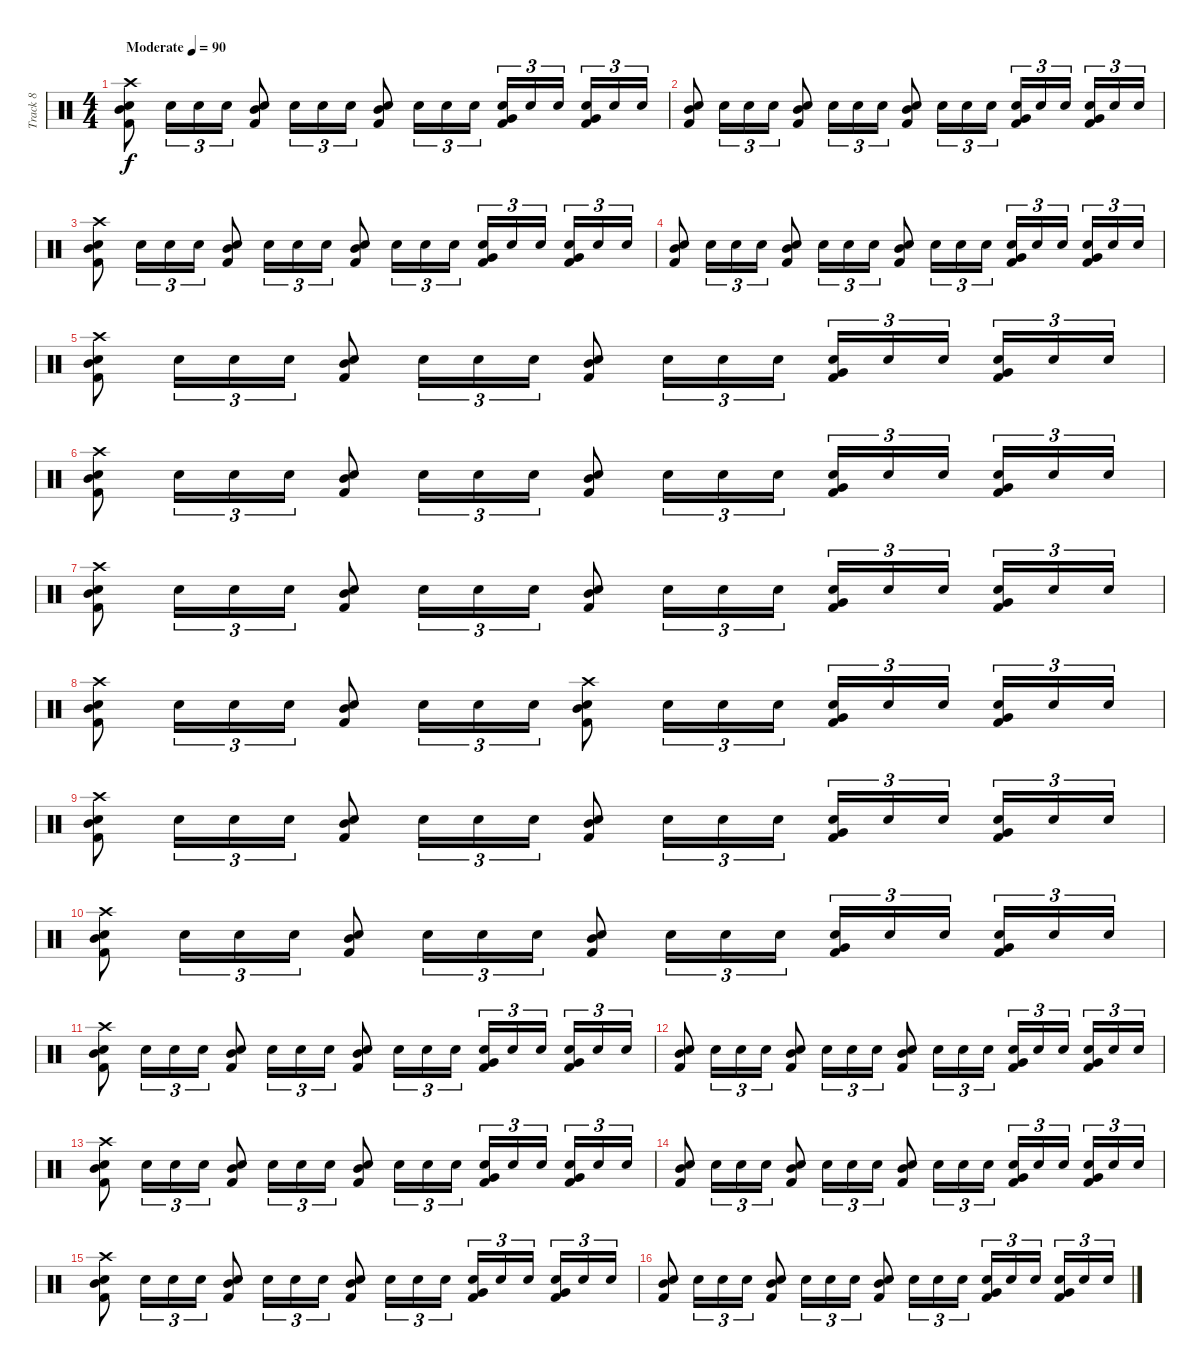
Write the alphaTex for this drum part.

\track ("Track 8" "Track 8") {instrument percussion}
\staff {score}
\articulation defaults
\ts (4 4)
\tempo (90 "Moderate")
\clef neutral
\ks c
("Crash high (hit)" "Mid Tom (hit)" "Snare (hit) 2" "Kick (hit) 2").8{dy f} "Snare (hit) 2".16{tu (3 2)} "Snare (hit) 2".16{tu (3 2)} "Snare (hit) 2".16{tu (3 2)} ("Mid Tom (hit)" "Snare (hit) 2" "Kick (hit) 2").8 "Snare (hit) 2".16{tu (3 2)} "Snare (hit) 2".16{tu (3 2)} "Snare (hit) 2".16{tu (3 2)} ("Mid Tom (hit)" "Snare (hit) 2" "Kick (hit) 2").8 "Snare (hit) 2".16{tu (3 2)} "Snare (hit) 2".16{tu (3 2)} "Snare (hit) 2".16{tu (3 2)} ("Very Low Tom (hit)" "Snare (hit) 2" "Kick (hit) 2").16{tu (3 2)} "Snare (hit) 2".16{tu (3 2)} "Snare (hit) 2".16{tu (3 2) beam splitsecondary} ("Very Low Tom (hit)" "Snare (hit) 2" "Kick (hit) 2").16{tu (3 2)} "Snare (hit) 2".16{tu (3 2)} "Snare (hit) 2".16{tu (3 2)} |
("Mid Tom (hit)" "Snare (hit) 2" "Kick (hit) 2").8 "Snare (hit) 2".16{tu (3 2)} "Snare (hit) 2".16{tu (3 2)} "Snare (hit) 2".16{tu (3 2)} ("Mid Tom (hit)" "Snare (hit) 2" "Kick (hit) 2").8 "Snare (hit) 2".16{tu (3 2)} "Snare (hit) 2".16{tu (3 2)} "Snare (hit) 2".16{tu (3 2)} ("Mid Tom (hit)" "Snare (hit) 2" "Kick (hit) 2").8 "Snare (hit) 2".16{tu (3 2)} "Snare (hit) 2".16{tu (3 2)} "Snare (hit) 2".16{tu (3 2)} ("Very Low Tom (hit)" "Snare (hit) 2" "Kick (hit) 2").16{tu (3 2)} "Snare (hit) 2".16{tu (3 2)} "Snare (hit) 2".16{tu (3 2) beam splitsecondary} ("Very Low Tom (hit)" "Snare (hit) 2" "Kick (hit) 2").16{tu (3 2)} "Snare (hit) 2".16{tu (3 2)} "Snare (hit) 2".16{tu (3 2)} |
("Crash high (hit)" "Mid Tom (hit)" "Snare (hit) 2" "Kick (hit) 2").8 "Snare (hit) 2".16{tu (3 2)} "Snare (hit) 2".16{tu (3 2)} "Snare (hit) 2".16{tu (3 2)} ("Mid Tom (hit)" "Snare (hit) 2" "Kick (hit) 2").8 "Snare (hit) 2".16{tu (3 2)} "Snare (hit) 2".16{tu (3 2)} "Snare (hit) 2".16{tu (3 2)} ("Mid Tom (hit)" "Snare (hit) 2" "Kick (hit) 2").8 "Snare (hit) 2".16{tu (3 2)} "Snare (hit) 2".16{tu (3 2)} "Snare (hit) 2".16{tu (3 2)} ("Very Low Tom (hit)" "Snare (hit) 2" "Kick (hit) 2").16{tu (3 2)} "Snare (hit) 2".16{tu (3 2)} "Snare (hit) 2".16{tu (3 2) beam splitsecondary} ("Very Low Tom (hit)" "Snare (hit) 2" "Kick (hit) 2").16{tu (3 2)} "Snare (hit) 2".16{tu (3 2)} "Snare (hit) 2".16{tu (3 2)} |
("Mid Tom (hit)" "Snare (hit) 2" "Kick (hit) 2").8 "Snare (hit) 2".16{tu (3 2)} "Snare (hit) 2".16{tu (3 2)} "Snare (hit) 2".16{tu (3 2)} ("Mid Tom (hit)" "Snare (hit) 2" "Kick (hit) 2").8 "Snare (hit) 2".16{tu (3 2)} "Snare (hit) 2".16{tu (3 2)} "Snare (hit) 2".16{tu (3 2)} ("Mid Tom (hit)" "Snare (hit) 2" "Kick (hit) 2").8 "Snare (hit) 2".16{tu (3 2)} "Snare (hit) 2".16{tu (3 2)} "Snare (hit) 2".16{tu (3 2)} ("Very Low Tom (hit)" "Snare (hit) 2" "Kick (hit) 2").16{tu (3 2)} "Snare (hit) 2".16{tu (3 2)} "Snare (hit) 2".16{tu (3 2) beam splitsecondary} ("Very Low Tom (hit)" "Snare (hit) 2" "Kick (hit) 2").16{tu (3 2)} "Snare (hit) 2".16{tu (3 2)} "Snare (hit) 2".16{tu (3 2)} |
("Crash high (hit)" "Mid Tom (hit)" "Snare (hit) 2" "Kick (hit) 2").8 "Snare (hit) 2".16{tu (3 2)} "Snare (hit) 2".16{tu (3 2)} "Snare (hit) 2".16{tu (3 2)} ("Mid Tom (hit)" "Snare (hit) 2" "Kick (hit) 2").8 "Snare (hit) 2".16{tu (3 2)} "Snare (hit) 2".16{tu (3 2)} "Snare (hit) 2".16{tu (3 2)} ("Mid Tom (hit)" "Snare (hit) 2" "Kick (hit) 2").8 "Snare (hit) 2".16{tu (3 2)} "Snare (hit) 2".16{tu (3 2)} "Snare (hit) 2".16{tu (3 2)} ("Very Low Tom (hit)" "Snare (hit) 2" "Kick (hit) 2").16{tu (3 2)} "Snare (hit) 2".16{tu (3 2)} "Snare (hit) 2".16{tu (3 2) beam splitsecondary} ("Very Low Tom (hit)" "Snare (hit) 2" "Kick (hit) 2").16{tu (3 2)} "Snare (hit) 2".16{tu (3 2)} "Snare (hit) 2".16{tu (3 2)} |
("Crash high (hit)" "Mid Tom (hit)" "Snare (hit) 2" "Kick (hit) 2").8 "Snare (hit) 2".16{tu (3 2)} "Snare (hit) 2".16{tu (3 2)} "Snare (hit) 2".16{tu (3 2)} ("Mid Tom (hit)" "Snare (hit) 2" "Kick (hit) 2").8 "Snare (hit) 2".16{tu (3 2)} "Snare (hit) 2".16{tu (3 2)} "Snare (hit) 2".16{tu (3 2)} ("Mid Tom (hit)" "Snare (hit) 2" "Kick (hit) 2").8 "Snare (hit) 2".16{tu (3 2)} "Snare (hit) 2".16{tu (3 2)} "Snare (hit) 2".16{tu (3 2)} ("Very Low Tom (hit)" "Snare (hit) 2" "Kick (hit) 2").16{tu (3 2)} "Snare (hit) 2".16{tu (3 2)} "Snare (hit) 2".16{tu (3 2) beam splitsecondary} ("Very Low Tom (hit)" "Snare (hit) 2" "Kick (hit) 2").16{tu (3 2)} "Snare (hit) 2".16{tu (3 2)} "Snare (hit) 2".16{tu (3 2)} |
("Crash high (hit)" "Mid Tom (hit)" "Snare (hit) 2" "Kick (hit) 2").8 "Snare (hit) 2".16{tu (3 2)} "Snare (hit) 2".16{tu (3 2)} "Snare (hit) 2".16{tu (3 2)} ("Mid Tom (hit)" "Snare (hit) 2" "Kick (hit) 2").8 "Snare (hit) 2".16{tu (3 2)} "Snare (hit) 2".16{tu (3 2)} "Snare (hit) 2".16{tu (3 2)} ("Mid Tom (hit)" "Snare (hit) 2" "Kick (hit) 2").8 "Snare (hit) 2".16{tu (3 2)} "Snare (hit) 2".16{tu (3 2)} "Snare (hit) 2".16{tu (3 2)} ("Very Low Tom (hit)" "Snare (hit) 2" "Kick (hit) 2").16{tu (3 2)} "Snare (hit) 2".16{tu (3 2)} "Snare (hit) 2".16{tu (3 2) beam splitsecondary} ("Very Low Tom (hit)" "Snare (hit) 2" "Kick (hit) 2").16{tu (3 2)} "Snare (hit) 2".16{tu (3 2)} "Snare (hit) 2".16{tu (3 2)} |
("Crash high (hit)" "Mid Tom (hit)" "Snare (hit) 2" "Kick (hit) 2").8 "Snare (hit) 2".16{tu (3 2)} "Snare (hit) 2".16{tu (3 2)} "Snare (hit) 2".16{tu (3 2)} ("Mid Tom (hit)" "Snare (hit) 2" "Kick (hit) 2").8 "Snare (hit) 2".16{tu (3 2)} "Snare (hit) 2".16{tu (3 2)} "Snare (hit) 2".16{tu (3 2)} ("Crash high (hit)" "Mid Tom (hit)" "Snare (hit) 2" "Kick (hit) 2").8 "Snare (hit) 2".16{tu (3 2)} "Snare (hit) 2".16{tu (3 2)} "Snare (hit) 2".16{tu (3 2)} ("Very Low Tom (hit)" "Snare (hit) 2" "Kick (hit) 2").16{tu (3 2)} "Snare (hit) 2".16{tu (3 2)} "Snare (hit) 2".16{tu (3 2) beam splitsecondary} ("Very Low Tom (hit)" "Snare (hit) 2" "Kick (hit) 2").16{tu (3 2)} "Snare (hit) 2".16{tu (3 2)} "Snare (hit) 2".16{tu (3 2)} |
("Crash high (hit)" "Mid Tom (hit)" "Snare (hit) 2" "Kick (hit) 2").8 "Snare (hit) 2".16{tu (3 2)} "Snare (hit) 2".16{tu (3 2)} "Snare (hit) 2".16{tu (3 2)} ("Mid Tom (hit)" "Snare (hit) 2" "Kick (hit) 2").8 "Snare (hit) 2".16{tu (3 2)} "Snare (hit) 2".16{tu (3 2)} "Snare (hit) 2".16{tu (3 2)} ("Mid Tom (hit)" "Snare (hit) 2" "Kick (hit) 2").8 "Snare (hit) 2".16{tu (3 2)} "Snare (hit) 2".16{tu (3 2)} "Snare (hit) 2".16{tu (3 2)} ("Very Low Tom (hit)" "Snare (hit) 2" "Kick (hit) 2").16{tu (3 2)} "Snare (hit) 2".16{tu (3 2)} "Snare (hit) 2".16{tu (3 2) beam splitsecondary} ("Very Low Tom (hit)" "Snare (hit) 2" "Kick (hit) 2").16{tu (3 2)} "Snare (hit) 2".16{tu (3 2)} "Snare (hit) 2".16{tu (3 2)} |
("Crash high (hit)" "Mid Tom (hit)" "Snare (hit) 2" "Kick (hit) 2").8 "Snare (hit) 2".16{tu (3 2)} "Snare (hit) 2".16{tu (3 2)} "Snare (hit) 2".16{tu (3 2)} ("Mid Tom (hit)" "Snare (hit) 2" "Kick (hit) 2").8 "Snare (hit) 2".16{tu (3 2)} "Snare (hit) 2".16{tu (3 2)} "Snare (hit) 2".16{tu (3 2)} ("Mid Tom (hit)" "Snare (hit) 2" "Kick (hit) 2").8 "Snare (hit) 2".16{tu (3 2)} "Snare (hit) 2".16{tu (3 2)} "Snare (hit) 2".16{tu (3 2)} ("Very Low Tom (hit)" "Snare (hit) 2" "Kick (hit) 2").16{tu (3 2)} "Snare (hit) 2".16{tu (3 2)} "Snare (hit) 2".16{tu (3 2) beam splitsecondary} ("Very Low Tom (hit)" "Snare (hit) 2" "Kick (hit) 2").16{tu (3 2)} "Snare (hit) 2".16{tu (3 2)} "Snare (hit) 2".16{tu (3 2)} |
("Crash high (hit)" "Mid Tom (hit)" "Snare (hit) 2" "Kick (hit) 2").8 "Snare (hit) 2".16{tu (3 2)} "Snare (hit) 2".16{tu (3 2)} "Snare (hit) 2".16{tu (3 2)} ("Mid Tom (hit)" "Snare (hit) 2" "Kick (hit) 2").8 "Snare (hit) 2".16{tu (3 2)} "Snare (hit) 2".16{tu (3 2)} "Snare (hit) 2".16{tu (3 2)} ("Mid Tom (hit)" "Snare (hit) 2" "Kick (hit) 2").8 "Snare (hit) 2".16{tu (3 2)} "Snare (hit) 2".16{tu (3 2)} "Snare (hit) 2".16{tu (3 2)} ("Very Low Tom (hit)" "Snare (hit) 2" "Kick (hit) 2").16{tu (3 2)} "Snare (hit) 2".16{tu (3 2)} "Snare (hit) 2".16{tu (3 2) beam splitsecondary} ("Very Low Tom (hit)" "Snare (hit) 2" "Kick (hit) 2").16{tu (3 2)} "Snare (hit) 2".16{tu (3 2)} "Snare (hit) 2".16{tu (3 2)} |
("Mid Tom (hit)" "Snare (hit) 2" "Kick (hit) 2").8 "Snare (hit) 2".16{tu (3 2)} "Snare (hit) 2".16{tu (3 2)} "Snare (hit) 2".16{tu (3 2)} ("Mid Tom (hit)" "Snare (hit) 2" "Kick (hit) 2").8 "Snare (hit) 2".16{tu (3 2)} "Snare (hit) 2".16{tu (3 2)} "Snare (hit) 2".16{tu (3 2)} ("Mid Tom (hit)" "Snare (hit) 2" "Kick (hit) 2").8 "Snare (hit) 2".16{tu (3 2)} "Snare (hit) 2".16{tu (3 2)} "Snare (hit) 2".16{tu (3 2)} ("Very Low Tom (hit)" "Snare (hit) 2" "Kick (hit) 2").16{tu (3 2)} "Snare (hit) 2".16{tu (3 2)} "Snare (hit) 2".16{tu (3 2) beam splitsecondary} ("Very Low Tom (hit)" "Snare (hit) 2" "Kick (hit) 2").16{tu (3 2)} "Snare (hit) 2".16{tu (3 2)} "Snare (hit) 2".16{tu (3 2)} |
("Crash high (hit)" "Mid Tom (hit)" "Snare (hit) 2" "Kick (hit) 2").8 "Snare (hit) 2".16{tu (3 2)} "Snare (hit) 2".16{tu (3 2)} "Snare (hit) 2".16{tu (3 2)} ("Mid Tom (hit)" "Snare (hit) 2" "Kick (hit) 2").8 "Snare (hit) 2".16{tu (3 2)} "Snare (hit) 2".16{tu (3 2)} "Snare (hit) 2".16{tu (3 2)} ("Mid Tom (hit)" "Snare (hit) 2" "Kick (hit) 2").8 "Snare (hit) 2".16{tu (3 2)} "Snare (hit) 2".16{tu (3 2)} "Snare (hit) 2".16{tu (3 2)} ("Very Low Tom (hit)" "Snare (hit) 2" "Kick (hit) 2").16{tu (3 2)} "Snare (hit) 2".16{tu (3 2)} "Snare (hit) 2".16{tu (3 2) beam splitsecondary} ("Very Low Tom (hit)" "Snare (hit) 2" "Kick (hit) 2").16{tu (3 2)} "Snare (hit) 2".16{tu (3 2)} "Snare (hit) 2".16{tu (3 2)} |
("Mid Tom (hit)" "Snare (hit) 2" "Kick (hit) 2").8 "Snare (hit) 2".16{tu (3 2)} "Snare (hit) 2".16{tu (3 2)} "Snare (hit) 2".16{tu (3 2)} ("Mid Tom (hit)" "Snare (hit) 2" "Kick (hit) 2").8 "Snare (hit) 2".16{tu (3 2)} "Snare (hit) 2".16{tu (3 2)} "Snare (hit) 2".16{tu (3 2)} ("Mid Tom (hit)" "Snare (hit) 2" "Kick (hit) 2").8 "Snare (hit) 2".16{tu (3 2)} "Snare (hit) 2".16{tu (3 2)} "Snare (hit) 2".16{tu (3 2)} ("Very Low Tom (hit)" "Snare (hit) 2" "Kick (hit) 2").16{tu (3 2)} "Snare (hit) 2".16{tu (3 2)} "Snare (hit) 2".16{tu (3 2) beam splitsecondary} ("Very Low Tom (hit)" "Snare (hit) 2" "Kick (hit) 2").16{tu (3 2)} "Snare (hit) 2".16{tu (3 2)} "Snare (hit) 2".16{tu (3 2)} |
("Crash high (hit)" "Mid Tom (hit)" "Snare (hit) 2" "Kick (hit) 2").8 "Snare (hit) 2".16{tu (3 2)} "Snare (hit) 2".16{tu (3 2)} "Snare (hit) 2".16{tu (3 2)} ("Mid Tom (hit)" "Snare (hit) 2" "Kick (hit) 2").8 "Snare (hit) 2".16{tu (3 2)} "Snare (hit) 2".16{tu (3 2)} "Snare (hit) 2".16{tu (3 2)} ("Mid Tom (hit)" "Snare (hit) 2" "Kick (hit) 2").8 "Snare (hit) 2".16{tu (3 2)} "Snare (hit) 2".16{tu (3 2)} "Snare (hit) 2".16{tu (3 2)} ("Very Low Tom (hit)" "Snare (hit) 2" "Kick (hit) 2").16{tu (3 2)} "Snare (hit) 2".16{tu (3 2)} "Snare (hit) 2".16{tu (3 2) beam splitsecondary} ("Very Low Tom (hit)" "Snare (hit) 2" "Kick (hit) 2").16{tu (3 2)} "Snare (hit) 2".16{tu (3 2)} "Snare (hit) 2".16{tu (3 2)} |
("Mid Tom (hit)" "Snare (hit) 2" "Kick (hit) 2").8 "Snare (hit) 2".16{tu (3 2)} "Snare (hit) 2".16{tu (3 2)} "Snare (hit) 2".16{tu (3 2)} ("Mid Tom (hit)" "Snare (hit) 2" "Kick (hit) 2").8 "Snare (hit) 2".16{tu (3 2)} "Snare (hit) 2".16{tu (3 2)} "Snare (hit) 2".16{tu (3 2)} ("Mid Tom (hit)" "Snare (hit) 2" "Kick (hit) 2").8 "Snare (hit) 2".16{tu (3 2)} "Snare (hit) 2".16{tu (3 2)} "Snare (hit) 2".16{tu (3 2)} ("Very Low Tom (hit)" "Snare (hit) 2" "Kick (hit) 2").16{tu (3 2)} "Snare (hit) 2".16{tu (3 2)} "Snare (hit) 2".16{tu (3 2) beam splitsecondary} ("Very Low Tom (hit)" "Snare (hit) 2" "Kick (hit) 2").16{tu (3 2)} "Snare (hit) 2".16{tu (3 2)} "Snare (hit) 2".16{tu (3 2)}
